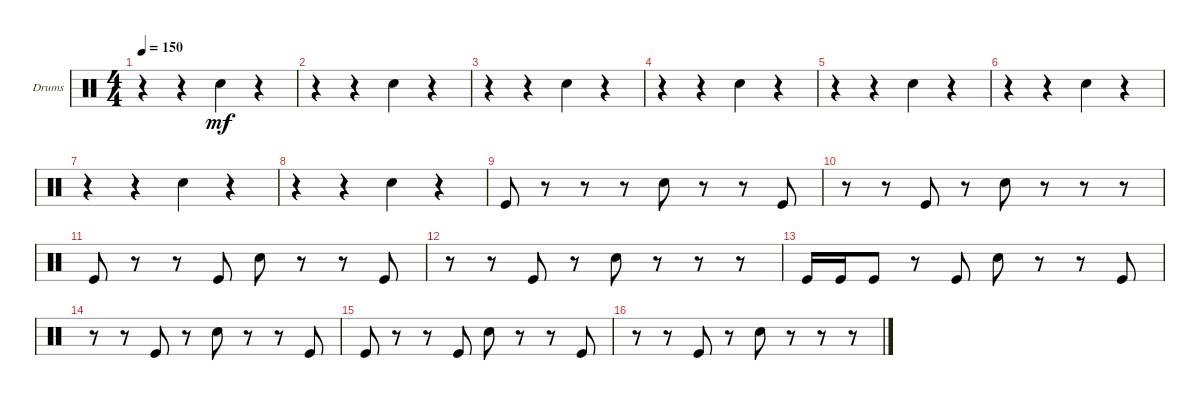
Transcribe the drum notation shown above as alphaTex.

\bracketExtendMode groupsimilarinstruments
\firstSystemTrackNameOrientation horizontal
\otherSystemsTrackNameOrientation horizontal
\track ("Drumkit" "Drums") {instrument percussion}
\staff {score}
\articulation defaults
\ts (4 4)
\tempo 150
\clef neutral
\ks c
r.4{dy mf} r.4 "Snare (hit) 2".4 r.4 |
r.4 r.4 "Snare (hit) 2".4 r.4 |
r.4 r.4 "Snare (hit) 2".4 r.4 |
r.4 r.4 "Snare (hit) 2".4 r.4 |
r.4 r.4 "Snare (hit) 2".4 r.4 |
r.4 r.4 "Snare (hit) 2".4 r.4 |
r.4 r.4 "Snare (hit) 2".4 r.4 |
r.4 r.4 "Snare (hit) 2".4 r.4 |
"Kick (hit)".8 r.8 r.8 r.8 "Snare (hit) 2".8 r.8 r.8 "Kick (hit)".8 |
r.8 r.8 "Kick (hit)".8 r.8 "Snare (hit) 2".8 r.8 r.8 r.8 |
"Kick (hit)".8 r.8 r.8 "Kick (hit)".8 "Snare (hit) 2".8 r.8 r.8 "Kick (hit)".8 |
r.8 r.8 "Kick (hit)".8 r.8 "Snare (hit) 2".8 r.8 r.8 r.8 |
"Kick (hit)".16 "Kick (hit)".16 "Kick (hit)".8 r.8 "Kick (hit)".8 "Snare (hit) 2".8 r.8 r.8 "Kick (hit)".8 |
r.8 r.8 "Kick (hit)".8 r.8 "Snare (hit) 2".8 r.8 r.8 "Kick (hit)".8 |
"Kick (hit)".8 r.8 r.8 "Kick (hit)".8 "Snare (hit) 2".8 r.8 r.8 "Kick (hit)".8 |
r.8 r.8 "Kick (hit)".8 r.8 "Snare (hit) 2".8 r.8 r.8 r.8
